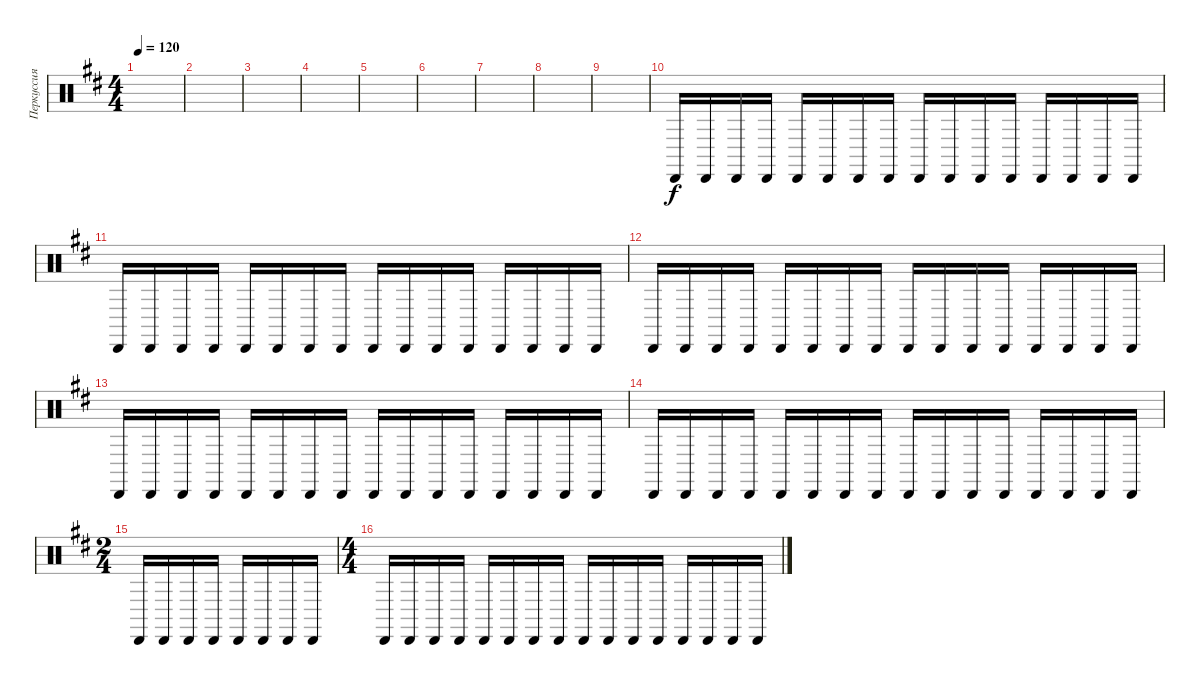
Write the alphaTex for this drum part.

\track ("Перкуссия" "Перкуссия") {instrument percussion}
\staff {score}
\articulation defaults
\ts (4 4)
\tempo 120
\clef neutral
\ks bminor
|
|
|
|
|
|
|
|
|
\ks d "Cabasa (hit)".16 "Cabasa (hit)".16 "Cabasa (hit)".16 "Cabasa (hit)".16 "Cabasa (hit)".16 "Cabasa (hit)".16 "Cabasa (hit)".16 "Cabasa (hit)".16 "Cabasa (hit)".16 "Cabasa (hit)".16 "Cabasa (hit)".16 "Cabasa (hit)".16 "Cabasa (hit)".16 "Cabasa (hit)".16 "Cabasa (hit)".16 "Cabasa (hit)".16
|
"Cabasa (hit)".16 "Cabasa (hit)".16 "Cabasa (hit)".16 "Cabasa (hit)".16 "Cabasa (hit)".16 "Cabasa (hit)".16 "Cabasa (hit)".16 "Cabasa (hit)".16 "Cabasa (hit)".16 "Cabasa (hit)".16 "Cabasa (hit)".16 "Cabasa (hit)".16 "Cabasa (hit)".16 "Cabasa (hit)".16 "Cabasa (hit)".16 "Cabasa (hit)".16 |
"Cabasa (hit)".16 "Cabasa (hit)".16 "Cabasa (hit)".16 "Cabasa (hit)".16 "Cabasa (hit)".16 "Cabasa (hit)".16 "Cabasa (hit)".16 "Cabasa (hit)".16 "Cabasa (hit)".16 "Cabasa (hit)".16 "Cabasa (hit)".16 "Cabasa (hit)".16 "Cabasa (hit)".16 "Cabasa (hit)".16 "Cabasa (hit)".16 "Cabasa (hit)".16 |
"Cabasa (hit)".16 "Cabasa (hit)".16 "Cabasa (hit)".16 "Cabasa (hit)".16 "Cabasa (hit)".16 "Cabasa (hit)".16 "Cabasa (hit)".16 "Cabasa (hit)".16 "Cabasa (hit)".16 "Cabasa (hit)".16 "Cabasa (hit)".16 "Cabasa (hit)".16 "Cabasa (hit)".16 "Cabasa (hit)".16 "Cabasa (hit)".16 "Cabasa (hit)".16 |
"Cabasa (hit)".16 "Cabasa (hit)".16 "Cabasa (hit)".16 "Cabasa (hit)".16 "Cabasa (hit)".16 "Cabasa (hit)".16 "Cabasa (hit)".16 "Cabasa (hit)".16 "Cabasa (hit)".16 "Cabasa (hit)".16 "Cabasa (hit)".16 "Cabasa (hit)".16 "Cabasa (hit)".16 "Cabasa (hit)".16 "Cabasa (hit)".16 "Cabasa (hit)".16 |
\ts (2 4)
"Cabasa (hit)".16 "Cabasa (hit)".16 "Cabasa (hit)".16 "Cabasa (hit)".16 "Cabasa (hit)".16 "Cabasa (hit)".16 "Cabasa (hit)".16 "Cabasa (hit)".16 |
\ts (4 4)
"Cabasa (hit)".16 "Cabasa (hit)".16 "Cabasa (hit)".16 "Cabasa (hit)".16 "Cabasa (hit)".16 "Cabasa (hit)".16 "Cabasa (hit)".16 "Cabasa (hit)".16 "Cabasa (hit)".16 "Cabasa (hit)".16 "Cabasa (hit)".16 "Cabasa (hit)".16 "Cabasa (hit)".16 "Cabasa (hit)".16 "Cabasa (hit)".16 "Cabasa (hit)".16
